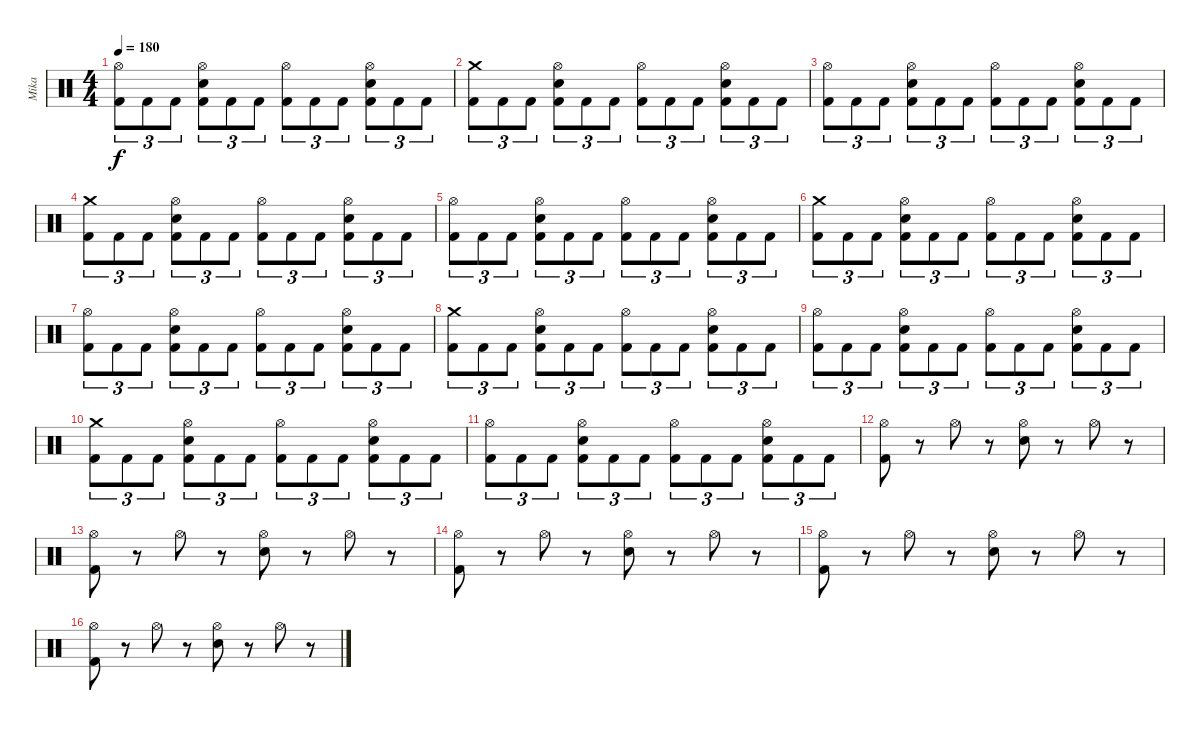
\track ("Mika" "Mika") {instrument percussion}
\staff {score}
\articulation defaults
\ts (4 4)
\tempo 180
\clef neutral
\ks c
("Hi-Hat (open)" "Kick (hit) 2").8{tu (3 2) dy f} "Kick (hit) 2".8{tu (3 2)} "Kick (hit) 2".8{tu (3 2)} ("Hi-Hat (open)" "Electric Snare (hit)" "Kick (hit) 2").8{tu (3 2)} "Kick (hit) 2".8{tu (3 2)} "Kick (hit) 2".8{tu (3 2)} ("Hi-Hat (open)" "Kick (hit) 2").8{tu (3 2)} "Kick (hit) 2".8{tu (3 2)} "Kick (hit) 2".8{tu (3 2)} ("Hi-Hat (open)" "Electric Snare (hit)" "Kick (hit) 2").8{tu (3 2)} "Kick (hit) 2".8{tu (3 2)} "Kick (hit) 2".8{tu (3 2)} |
("Crash medium (hit)" "Kick (hit) 2").8{tu (3 2)} "Kick (hit) 2".8{tu (3 2)} "Kick (hit) 2".8{tu (3 2)} ("Hi-Hat (open)" "Electric Snare (hit)" "Kick (hit) 2").8{tu (3 2)} "Kick (hit) 2".8{tu (3 2)} "Kick (hit) 2".8{tu (3 2)} ("Hi-Hat (open)" "Kick (hit) 2").8{tu (3 2)} "Kick (hit) 2".8{tu (3 2)} "Kick (hit) 2".8{tu (3 2)} ("Hi-Hat (open)" "Electric Snare (hit)" "Kick (hit) 2").8{tu (3 2)} "Kick (hit) 2".8{tu (3 2)} "Kick (hit) 2".8{tu (3 2)} |
("Hi-Hat (open)" "Kick (hit) 2").8{tu (3 2)} "Kick (hit) 2".8{tu (3 2)} "Kick (hit) 2".8{tu (3 2)} ("Hi-Hat (open)" "Electric Snare (hit)" "Kick (hit) 2").8{tu (3 2)} "Kick (hit) 2".8{tu (3 2)} "Kick (hit) 2".8{tu (3 2)} ("Hi-Hat (open)" "Kick (hit) 2").8{tu (3 2)} "Kick (hit) 2".8{tu (3 2)} "Kick (hit) 2".8{tu (3 2)} ("Hi-Hat (open)" "Electric Snare (hit)" "Kick (hit) 2").8{tu (3 2)} "Kick (hit) 2".8{tu (3 2)} "Kick (hit) 2".8{tu (3 2)} |
("Crash medium (hit)" "Kick (hit) 2").8{tu (3 2)} "Kick (hit) 2".8{tu (3 2)} "Kick (hit) 2".8{tu (3 2)} ("Hi-Hat (open)" "Electric Snare (hit)" "Kick (hit) 2").8{tu (3 2)} "Kick (hit) 2".8{tu (3 2)} "Kick (hit) 2".8{tu (3 2)} ("Hi-Hat (open)" "Kick (hit) 2").8{tu (3 2)} "Kick (hit) 2".8{tu (3 2)} "Kick (hit) 2".8{tu (3 2)} ("Hi-Hat (open)" "Electric Snare (hit)" "Kick (hit) 2").8{tu (3 2)} "Kick (hit) 2".8{tu (3 2)} "Kick (hit) 2".8{tu (3 2)} |
("Hi-Hat (open)" "Kick (hit) 2").8{tu (3 2)} "Kick (hit) 2".8{tu (3 2)} "Kick (hit) 2".8{tu (3 2)} ("Hi-Hat (open)" "Electric Snare (hit)" "Kick (hit) 2").8{tu (3 2)} "Kick (hit) 2".8{tu (3 2)} "Kick (hit) 2".8{tu (3 2)} ("Hi-Hat (open)" "Kick (hit) 2").8{tu (3 2)} "Kick (hit) 2".8{tu (3 2)} "Kick (hit) 2".8{tu (3 2)} ("Hi-Hat (open)" "Electric Snare (hit)" "Kick (hit) 2").8{tu (3 2)} "Kick (hit) 2".8{tu (3 2)} "Kick (hit) 2".8{tu (3 2)} |
("Crash medium (hit)" "Kick (hit) 2").8{tu (3 2)} "Kick (hit) 2".8{tu (3 2)} "Kick (hit) 2".8{tu (3 2)} ("Hi-Hat (open)" "Electric Snare (hit)" "Kick (hit) 2").8{tu (3 2)} "Kick (hit) 2".8{tu (3 2)} "Kick (hit) 2".8{tu (3 2)} ("Hi-Hat (open)" "Kick (hit) 2").8{tu (3 2)} "Kick (hit) 2".8{tu (3 2)} "Kick (hit) 2".8{tu (3 2)} ("Hi-Hat (open)" "Electric Snare (hit)" "Kick (hit) 2").8{tu (3 2)} "Kick (hit) 2".8{tu (3 2)} "Kick (hit) 2".8{tu (3 2)} |
("Hi-Hat (open)" "Kick (hit) 2").8{tu (3 2)} "Kick (hit) 2".8{tu (3 2)} "Kick (hit) 2".8{tu (3 2)} ("Hi-Hat (open)" "Electric Snare (hit)" "Kick (hit) 2").8{tu (3 2)} "Kick (hit) 2".8{tu (3 2)} "Kick (hit) 2".8{tu (3 2)} ("Hi-Hat (open)" "Kick (hit) 2").8{tu (3 2)} "Kick (hit) 2".8{tu (3 2)} "Kick (hit) 2".8{tu (3 2)} ("Hi-Hat (open)" "Electric Snare (hit)" "Kick (hit) 2").8{tu (3 2)} "Kick (hit) 2".8{tu (3 2)} "Kick (hit) 2".8{tu (3 2)} |
("Crash medium (hit)" "Kick (hit) 2").8{tu (3 2)} "Kick (hit) 2".8{tu (3 2)} "Kick (hit) 2".8{tu (3 2)} ("Hi-Hat (open)" "Electric Snare (hit)" "Kick (hit) 2").8{tu (3 2)} "Kick (hit) 2".8{tu (3 2)} "Kick (hit) 2".8{tu (3 2)} ("Hi-Hat (open)" "Kick (hit) 2").8{tu (3 2)} "Kick (hit) 2".8{tu (3 2)} "Kick (hit) 2".8{tu (3 2)} ("Hi-Hat (open)" "Electric Snare (hit)" "Kick (hit) 2").8{tu (3 2)} "Kick (hit) 2".8{tu (3 2)} "Kick (hit) 2".8{tu (3 2)} |
("Hi-Hat (open)" "Kick (hit) 2").8{tu (3 2)} "Kick (hit) 2".8{tu (3 2)} "Kick (hit) 2".8{tu (3 2)} ("Hi-Hat (open)" "Electric Snare (hit)" "Kick (hit) 2").8{tu (3 2)} "Kick (hit) 2".8{tu (3 2)} "Kick (hit) 2".8{tu (3 2)} ("Hi-Hat (open)" "Kick (hit) 2").8{tu (3 2)} "Kick (hit) 2".8{tu (3 2)} "Kick (hit) 2".8{tu (3 2)} ("Hi-Hat (open)" "Electric Snare (hit)" "Kick (hit) 2").8{tu (3 2)} "Kick (hit) 2".8{tu (3 2)} "Kick (hit) 2".8{tu (3 2)} |
("Crash medium (hit)" "Kick (hit) 2").8{tu (3 2)} "Kick (hit) 2".8{tu (3 2)} "Kick (hit) 2".8{tu (3 2)} ("Hi-Hat (open)" "Electric Snare (hit)" "Kick (hit) 2").8{tu (3 2)} "Kick (hit) 2".8{tu (3 2)} "Kick (hit) 2".8{tu (3 2)} ("Hi-Hat (open)" "Kick (hit) 2").8{tu (3 2)} "Kick (hit) 2".8{tu (3 2)} "Kick (hit) 2".8{tu (3 2)} ("Hi-Hat (open)" "Electric Snare (hit)" "Kick (hit) 2").8{tu (3 2)} "Kick (hit) 2".8{tu (3 2)} "Kick (hit) 2".8{tu (3 2)} |
("Hi-Hat (open)" "Kick (hit) 2").8{tu (3 2)} "Kick (hit) 2".8{tu (3 2)} "Kick (hit) 2".8{tu (3 2)} ("Hi-Hat (open)" "Electric Snare (hit)" "Kick (hit) 2").8{tu (3 2)} "Kick (hit) 2".8{tu (3 2)} "Kick (hit) 2".8{tu (3 2)} ("Hi-Hat (open)" "Kick (hit) 2").8{tu (3 2)} "Kick (hit) 2".8{tu (3 2)} "Kick (hit) 2".8{tu (3 2)} ("Hi-Hat (open)" "Electric Snare (hit)" "Kick (hit) 2").8{tu (3 2)} "Kick (hit) 2".8{tu (3 2)} "Kick (hit) 2".8{tu (3 2)} |
("Hi-Hat (open)" "Kick (hit) 2").8 r.8 "Hi-Hat (open)".8 r.8 ("Hi-Hat (open)" "Electric Snare (hit)").8 r.8 "Hi-Hat (open)".8 r.8 |
("Hi-Hat (open)" "Kick (hit) 2").8 r.8 "Hi-Hat (open)".8 r.8 ("Hi-Hat (open)" "Electric Snare (hit)").8 r.8 "Hi-Hat (open)".8 r.8 |
("Hi-Hat (open)" "Kick (hit) 2").8 r.8 "Hi-Hat (open)".8 r.8 ("Hi-Hat (open)" "Electric Snare (hit)").8 r.8 "Hi-Hat (open)".8 r.8 |
("Hi-Hat (open)" "Kick (hit) 2").8 r.8 "Hi-Hat (open)".8 r.8 ("Hi-Hat (open)" "Electric Snare (hit)").8 r.8 "Hi-Hat (open)".8 r.8 |
("Hi-Hat (open)" "Kick (hit) 2").8 r.8 "Hi-Hat (open)".8 r.8 ("Hi-Hat (open)" "Electric Snare (hit)").8 r.8 "Hi-Hat (open)".8 r.8
